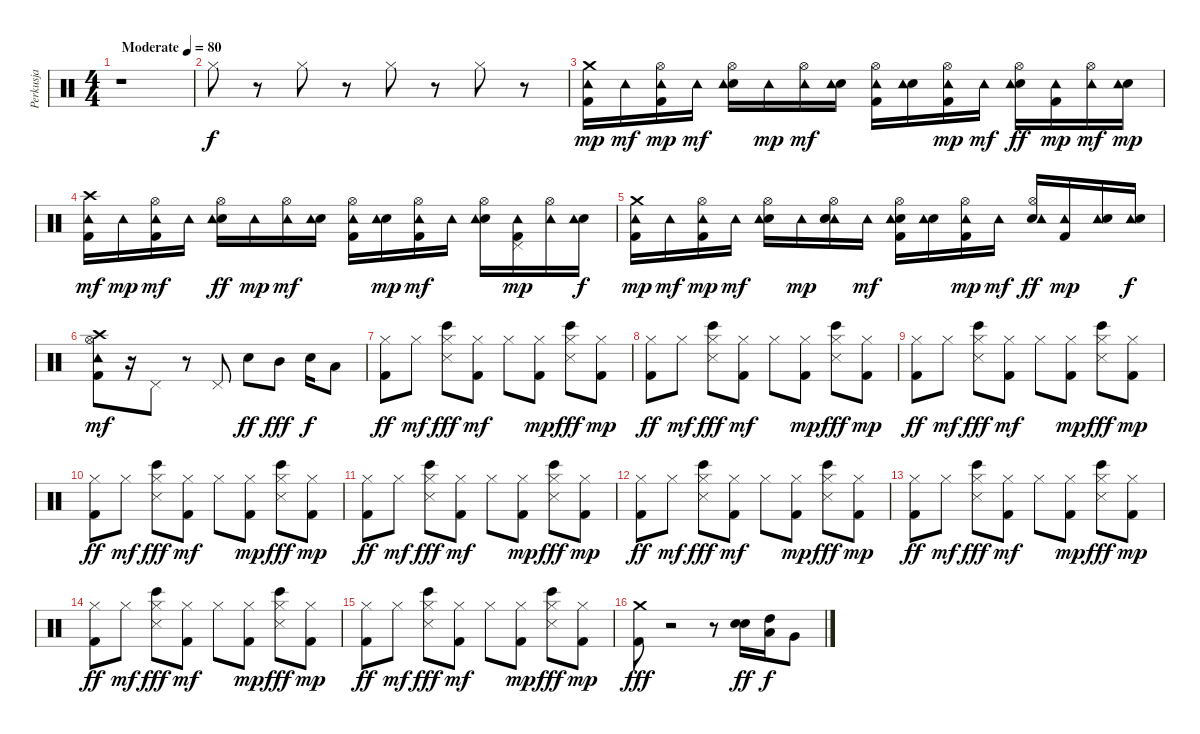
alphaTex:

\track ("Perkusja" "Perkusja") {instrument percussion}
\staff {score}
\articulation defaults
\ts (4 4)
\tempo (80 "Moderate")
\clef neutral
\ks c
r.1{dy f} |
"Hi-Hat (closed)".8 r.8 "Hi-Hat (closed)".8 r.8 "Hi-Hat (closed)".8 r.8 "Hi-Hat (closed)".8 r.8 |
("Kick (hit) 2" "Tambourine (hit)" "Crash medium (hit)").16{dy mp} "Tambourine (hit)".16{dy mf} ("Kick (hit) 2" "Hi-Hat (open)" "Tambourine (hit)").16{dy mp} "Tambourine (hit)".16{dy mf} ("Electric Snare (hit)" "Hi-Hat (open)" "Tambourine (hit)").16 "Tambourine (hit)".16{dy mp} ("Hi-Hat (open)" "Tambourine (hit)").16{dy mf} ("Electric Snare (hit)" "Tambourine (hit)").16 ("Kick (hit) 2" "Hi-Hat (open)" "Tambourine (hit)").16 ("Electric Snare (hit)" "Tambourine (hit)").16 ("Kick (hit) 2" "Hi-Hat (open)" "Tambourine (hit)").16{dy mp} "Tambourine (hit)".16{dy mf} ("Electric Snare (hit)" "Hi-Hat (open)" "Tambourine (hit)").16{dy ff} ("Kick (hit) 2" "Tambourine (hit)").16{dy mp} ("Hi-Hat (open)" "Tambourine (hit)").16{dy mf} ("Electric Snare (hit)" "Tambourine (hit)").16{dy mp} |
("Kick (hit) 2" "Crash high (hit)" "Tambourine (hit)").16{dy mf} "Tambourine (hit)".16{dy mp} ("Kick (hit) 2" "Hi-Hat (open)" "Tambourine (hit)").16{dy mf} "Tambourine (hit)".16 ("Electric Snare (hit)" "Hi-Hat (open)" "Tambourine (hit)").16{dy ff} "Tambourine (hit)".16{dy mp} ("Hi-Hat (open)" "Tambourine (hit)").16{dy mf} ("Electric Snare (hit)" "Tambourine (hit)").16 ("Kick (hit) 2" "Hi-Hat (open)" "Tambourine (hit)").16 ("Electric Snare (hit)" "Tambourine (hit)").16{dy mp} ("Kick (hit) 2" "Hi-Hat (open)" "Tambourine (hit)").16{dy mf} "Tambourine (hit)".16 ("Electric Snare (hit)" "Hi-Hat (open)" "Tambourine (hit)").16 ("Kick (hit) 2" "Pedal Hi-Hat (hit)" "Tambourine (hit)").16{dy mp} ("Hi-Hat (open)" "Tambourine (hit)").16 ("Electric Snare (hit)" "Tambourine (hit)").16{dy f} |
("Kick (hit) 2" "Tambourine (hit)" "Crash medium (hit)").16{dy mp} "Tambourine (hit)".16{dy mf} ("Kick (hit) 2" "Hi-Hat (open)" "Tambourine (hit)").16{dy mp} "Tambourine (hit)".16{dy mf} ("Electric Snare (hit)" "Hi-Hat (open)" "Tambourine (hit)").16 "Tambourine (hit)".16{dy mp} ("Hi-Hat (open)" "Tambourine (hit)" "Snare (hit)" "Electric Snare (hit)").16 "Tambourine (hit)".16{dy mf} ("Electric Snare (hit)" "Kick (hit) 2" "Hi-Hat (open)" "Tambourine (hit)").16 ("Electric Snare (hit)" "Tambourine (hit)").16 ("Kick (hit) 2" "Hi-Hat (open)" "Tambourine (hit)").16{dy mp} "Tambourine (hit)".16{dy mf} ("Electric Snare (hit)" "Hi-Hat (open)" "Tambourine (hit)").16{dy ff} ("Kick (hit) 2" "Tambourine (hit)").16{dy mp} ("Tambourine (hit)" "Electric Snare (hit)").16 ("Tambourine (hit)" "Electric Snare (hit)").16{dy f} |
("Kick (hit) 2" "Hi-Hat (open)" "Crash high (hit)" "Tambourine (hit)").8{dy mf} r.16 "Pedal Hi-Hat (hit)".8 r.8 "Pedal Hi-Hat (hit)".8 "Electric Snare (hit)".8{dy ff} "Mid Tom (hit)".8{dy fff} "Electric Snare (hit)".16{dy f} "Low Tom (hit)".8 |
("Kick (hit) 2" "Hi-Hat (closed)").8{dy ff} "Hi-Hat (closed)".8{dy mf} ("Bongo High (hit)" "Snare (side stick) 3" "Hi-Hat (closed)").8{dy fff} ("Kick (hit) 2" "Hi-Hat (closed)").8{dy mf} "Hi-Hat (closed)".8 ("Kick (hit) 2" "Hi-Hat (closed)").8{dy mp} ("Bongo High (hit)" "Snare (side stick) 3" "Hi-Hat (closed)").8{dy fff} ("Hi-Hat (closed)" "Kick (hit) 2").8{dy mp} |
("Kick (hit) 2" "Hi-Hat (closed)").8{dy ff} "Hi-Hat (closed)".8{dy mf} ("Bongo High (hit)" "Snare (side stick) 3" "Hi-Hat (closed)").8{dy fff} ("Kick (hit) 2" "Hi-Hat (closed)").8{dy mf} "Hi-Hat (closed)".8 ("Kick (hit) 2" "Hi-Hat (closed)").8{dy mp} ("Bongo High (hit)" "Snare (side stick) 3" "Hi-Hat (closed)").8{dy fff} ("Hi-Hat (closed)" "Kick (hit) 2").8{dy mp} |
("Kick (hit) 2" "Hi-Hat (closed)").8{dy ff} "Hi-Hat (closed)".8{dy mf} ("Bongo High (hit)" "Snare (side stick) 3" "Hi-Hat (closed)").8{dy fff} ("Kick (hit) 2" "Hi-Hat (closed)").8{dy mf} "Hi-Hat (closed)".8 ("Kick (hit) 2" "Hi-Hat (closed)").8{dy mp} ("Bongo High (hit)" "Snare (side stick) 3" "Hi-Hat (closed)").8{dy fff} ("Hi-Hat (closed)" "Kick (hit) 2").8{dy mp} |
("Kick (hit) 2" "Hi-Hat (closed)").8{dy ff} "Hi-Hat (closed)".8{dy mf} ("Bongo High (hit)" "Snare (side stick) 3" "Hi-Hat (closed)").8{dy fff} ("Kick (hit) 2" "Hi-Hat (closed)").8{dy mf} "Hi-Hat (closed)".8 ("Kick (hit) 2" "Hi-Hat (closed)").8{dy mp} ("Bongo High (hit)" "Snare (side stick) 3" "Hi-Hat (closed)").8{dy fff} ("Hi-Hat (closed)" "Kick (hit) 2").8{dy mp} |
("Kick (hit) 2" "Hi-Hat (closed)").8{dy ff} "Hi-Hat (closed)".8{dy mf} ("Bongo High (hit)" "Snare (side stick) 3" "Hi-Hat (closed)").8{dy fff} ("Kick (hit) 2" "Hi-Hat (closed)").8{dy mf} "Hi-Hat (closed)".8 ("Kick (hit) 2" "Hi-Hat (closed)").8{dy mp} ("Bongo High (hit)" "Snare (side stick) 3" "Hi-Hat (closed)").8{dy fff} ("Hi-Hat (closed)" "Kick (hit) 2").8{dy mp} |
("Kick (hit) 2" "Hi-Hat (closed)").8{dy ff} "Hi-Hat (closed)".8{dy mf} ("Bongo High (hit)" "Snare (side stick) 3" "Hi-Hat (closed)").8{dy fff} ("Kick (hit) 2" "Hi-Hat (closed)").8{dy mf} "Hi-Hat (closed)".8 ("Kick (hit) 2" "Hi-Hat (closed)").8{dy mp} ("Bongo High (hit)" "Snare (side stick) 3" "Hi-Hat (closed)").8{dy fff} ("Hi-Hat (closed)" "Kick (hit) 2").8{dy mp} |
("Kick (hit) 2" "Hi-Hat (closed)").8{dy ff} "Hi-Hat (closed)".8{dy mf} ("Bongo High (hit)" "Snare (side stick) 3" "Hi-Hat (closed)").8{dy fff} ("Kick (hit) 2" "Hi-Hat (closed)").8{dy mf} "Hi-Hat (closed)".8 ("Kick (hit) 2" "Hi-Hat (closed)").8{dy mp} ("Bongo High (hit)" "Snare (side stick) 3" "Hi-Hat (closed)").8{dy fff} ("Hi-Hat (closed)" "Kick (hit) 2").8{dy mp} |
("Kick (hit) 2" "Hi-Hat (closed)").8{dy ff} "Hi-Hat (closed)".8{dy mf} ("Bongo High (hit)" "Snare (side stick) 3" "Hi-Hat (closed)").8{dy fff} ("Kick (hit) 2" "Hi-Hat (closed)").8{dy mf} "Hi-Hat (closed)".8 ("Kick (hit) 2" "Hi-Hat (closed)").8{dy mp} ("Bongo High (hit)" "Snare (side stick) 3" "Hi-Hat (closed)").8{dy fff} ("Hi-Hat (closed)" "Kick (hit) 2").8{dy mp} |
("Kick (hit) 2" "Hi-Hat (closed)").8{dy ff} "Hi-Hat (closed)".8{dy mf} ("Bongo High (hit)" "Snare (side stick) 3" "Hi-Hat (closed)").8{dy fff} ("Kick (hit) 2" "Hi-Hat (closed)").8{dy mf} "Hi-Hat (closed)".8 ("Kick (hit) 2" "Hi-Hat (closed)").8{dy mp} ("Bongo High (hit)" "Snare (side stick) 3" "Hi-Hat (closed)").8{dy fff} ("Hi-Hat (closed)" "Kick (hit) 2").8{dy mp} |
("Kick (hit) 2" "Crash medium (hit)").8{dy fff} r.2 r.8 ("Electric Snare (hit)" "Electric Snare (hit)").16{dy ff} ("High Tom (hit)" "Low Tom (hit)").16{dy f} "Very Low Tom (hit)".8
